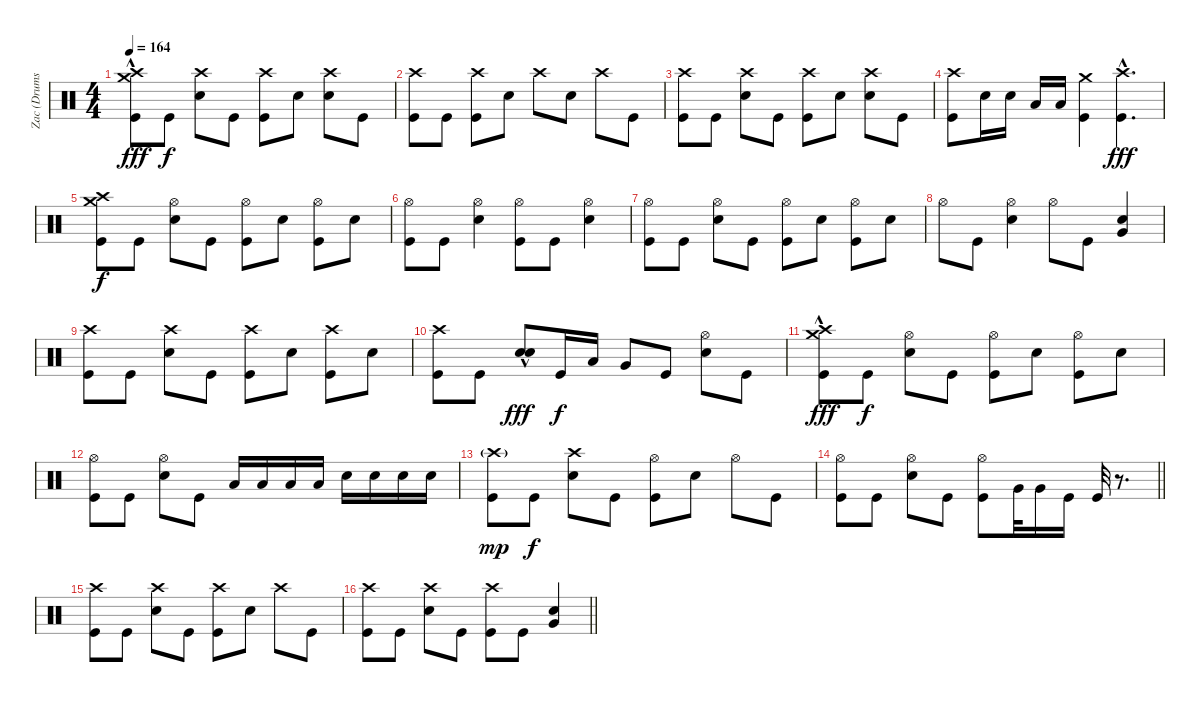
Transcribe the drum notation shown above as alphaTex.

\track ("Zac (Drums)" "Zac (Drums") {instrument percussion}
\staff {score}
\articulation defaults
\ts (4 4)
\tempo 164
\clef neutral
\ks c
("Crash high (hit)"{hac} "Crash medium (hit)" "Kick (hit)").8{dy fff} "Kick (hit)".8{dy f} ("Crash high (hit)" "Electric Snare (hit)").8 "Kick (hit)".8 ("Crash high (hit)" "Kick (hit)").8 "Electric Snare (hit)".8 ("Crash high (hit)" "Electric Snare (hit)").8 "Kick (hit)".8 |
("Crash high (hit)" "Kick (hit)").8 "Kick (hit)".8 ("Crash high (hit)" "Kick (hit)").8 "Electric Snare (hit)".8 "Crash high (hit)".8 "Electric Snare (hit)".8 "Crash high (hit)".8 "Kick (hit)".8 |
("Crash high (hit)" "Kick (hit)").8 "Kick (hit)".8 ("Crash high (hit)" "Electric Snare (hit)").8 "Kick (hit)".8 ("Crash high (hit)" "Kick (hit)").8 "Electric Snare (hit)".8 ("Crash high (hit)" "Electric Snare (hit)").8 "Kick (hit)".8 |
("Crash high (hit)" "Kick (hit)").8 "Electric Snare (hit)".16 "Electric Snare (hit)".16 "Low Tom (hit)".16 "Low Tom (hit)".16 ("Crash medium (hit)" "Kick (hit)").4 ("Crash high (hit)"{hac} "Kick (hit)").4{d dy fff} |
("Crash high (hit)" "Crash medium (hit)" "Kick (hit)").8{dy f} "Kick (hit)".8 ("Hi-Hat (open)" "Electric Snare (hit)").8 "Kick (hit)".8 ("Hi-Hat (open)" "Kick (hit)").8 "Electric Snare (hit)".8 ("Hi-Hat (open)" "Kick (hit)").8 "Electric Snare (hit)".8 |
("Hi-Hat (open)" "Kick (hit)").8 "Kick (hit)".8 ("Hi-Hat (open)" "Electric Snare (hit)").4 ("Hi-Hat (open)" "Kick (hit)").8 "Kick (hit)".8 ("Hi-Hat (open)" "Electric Snare (hit)").4 |
("Hi-Hat (open)" "Kick (hit)").8 "Kick (hit)".8 ("Hi-Hat (open)" "Electric Snare (hit)").8 "Kick (hit)".8 ("Hi-Hat (open)" "Kick (hit)").8 "Electric Snare (hit)".8 ("Hi-Hat (open)" "Kick (hit)").8 "Electric Snare (hit)".8 |
"Hi-Hat (open)".8 "Kick (hit)".8 ("Hi-Hat (open)" "Electric Snare (hit)").4 "Hi-Hat (open)".8 "Kick (hit)".8 ("Electric Snare (hit)" "Very Low Tom (hit)").4 |
("Crash high (hit)" "Kick (hit)").8 "Kick (hit)".8 ("Crash high (hit)" "Electric Snare (hit)").8 "Kick (hit)".8 ("Crash high (hit)" "Kick (hit)").8 "Electric Snare (hit)".8 ("Crash high (hit)" "Kick (hit)").8 "Electric Snare (hit)".8 |
("Crash high (hit)" "Kick (hit)").8 "Kick (hit)".8 ("Electric Snare (hit)"{hac} "Electric Snare (hit)"{hac}).8{dy fff} "Kick (hit)".16{dy f} "Low Tom (hit)".16 "Very Low Tom (hit)".8 "Kick (hit)".8 ("Hi-Hat (open)" "Electric Snare (hit)").8 "Kick (hit)".8 |
("Crash high (hit)"{hac} "Crash medium (hit)" "Kick (hit)").8{dy fff} "Kick (hit)".8{dy f} ("Hi-Hat (open)" "Electric Snare (hit)").8 "Kick (hit)".8 ("Hi-Hat (open)" "Kick (hit)").8 "Electric Snare (hit)".8 ("Hi-Hat (open)" "Kick (hit)").8 "Electric Snare (hit)".8 |
("Hi-Hat (open)" "Kick (hit)").8 "Kick (hit)".8 ("Hi-Hat (open)" "Electric Snare (hit)").8 "Kick (hit)".8 "Low Tom (hit)".16 "Low Tom (hit)".16 "Low Tom (hit)".16 "Low Tom (hit)".16 "Electric Snare (hit)".16 "Electric Snare (hit)".16 "Electric Snare (hit)".16 "Electric Snare (hit)".16 |
("Crash high (hit)"{g} "Kick (hit)").8{dy mp} "Kick (hit)".8{dy f} ("Crash high (hit)" "Electric Snare (hit)").8 "Kick (hit)".8 ("Hi-Hat (open)" "Kick (hit)").8 "Electric Snare (hit)".8 "Hi-Hat (open)".8 "Kick (hit)".8 |
\barLineRight lightlight
("Hi-Hat (open)" "Kick (hit)").8 "Kick (hit)".8 ("Hi-Hat (open)" "Electric Snare (hit)").8 "Kick (hit)".8 ("Hi-Hat (open)" "Kick (hit)").8 "Very Low Tom (hit)".32 "Very Low Tom (hit)".16 "Kick (hit)".16 "Kick (hit)".32 r.8{d} |
("Crash high (hit)" "Kick (hit)").8 "Kick (hit)".8 ("Crash high (hit)" "Electric Snare (hit)").8 "Kick (hit)".8 ("Crash high (hit)" "Kick (hit)").8 "Electric Snare (hit)".8 "Crash high (hit)".8 "Kick (hit)".8 |
\barLineRight lightlight
("Crash high (hit)" "Kick (hit)").8 "Kick (hit)".8 ("Crash high (hit)" "Electric Snare (hit)").8 "Kick (hit)".8 ("Crash high (hit)" "Kick (hit)").8 "Kick (hit)".8 ("Electric Snare (hit)" "Very Low Tom (hit)").4
